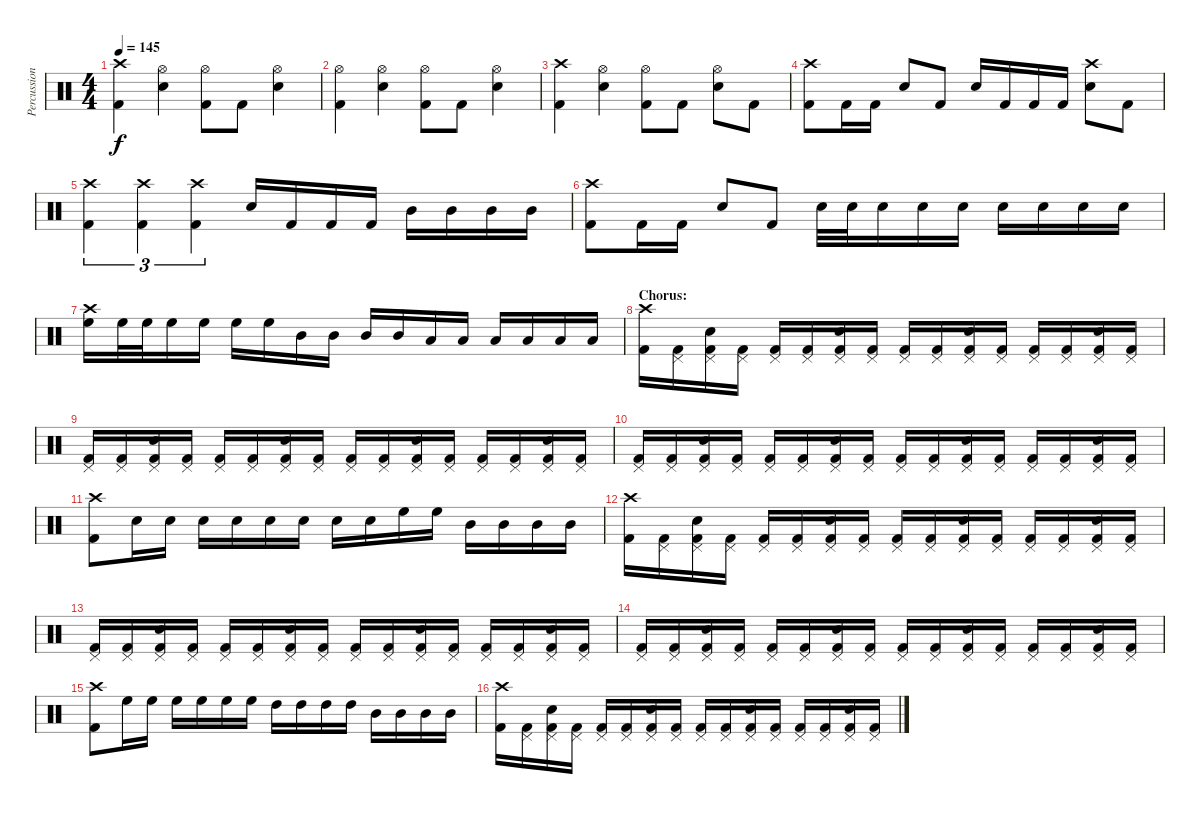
\track ("Percussion" "Percussion") {instrument percussion}
\staff {score}
\articulation defaults
\ts (4 4)
\tempo 145
\clef neutral
\ks c
("Crash high (hit)" "Kick (hit) 2").4{dy f} ("Hi-Hat (open)" "Snare (hit) 2").4 ("Hi-Hat (open)" "Kick (hit) 2").8 "Kick (hit) 2".8 ("Hi-Hat (open)" "Snare (hit) 2").4 |
("Hi-Hat (open)" "Kick (hit) 2").4 ("Hi-Hat (open)" "Snare (hit) 2").4 ("Hi-Hat (open)" "Kick (hit) 2").8 "Kick (hit) 2".8 ("Hi-Hat (open)" "Snare (hit) 2").4 |
("Crash high (hit)" "Kick (hit) 2").4 ("Hi-Hat (open)" "Snare (hit) 2").4 ("Hi-Hat (open)" "Kick (hit) 2").8 "Kick (hit) 2".8 ("Hi-Hat (open)" "Snare (hit) 2").8 "Kick (hit) 2".8 |
("Crash high (hit)" "Kick (hit) 2").8 "Kick (hit) 2".16 "Kick (hit) 2".16 "Snare (hit) 2".8 "Kick (hit) 2".8 "Snare (hit) 2".16 "Kick (hit) 2".16 "Kick (hit) 2".16 "Kick (hit) 2".16 ("Crash high (hit)" "Snare (hit) 2").8 "Kick (hit) 2".8 |
("Crash high (hit)" "Kick (hit) 2").4{tu (3 2)} ("Crash high (hit)" "Kick (hit) 2").4{tu (3 2)} ("Crash high (hit)" "Kick (hit) 2").4{tu (3 2)} "Snare (hit) 2".16 "Kick (hit) 2".16 "Kick (hit) 2".16 "Kick (hit) 2".16 "Mid Tom (hit)".16 "Mid Tom (hit)".16 "Mid Tom (hit)".16 "Mid Tom (hit)".16 |
("Crash high (hit)" "Kick (hit) 2").8 "Kick (hit) 2".16 "Kick (hit) 2".16 "Snare (hit) 2".8 "Kick (hit) 2".8 "Snare (hit) 2".32 "Snare (hit) 2".32 "Snare (hit) 2".16 "Snare (hit) 2".16 "Snare (hit) 2".16 "Snare (hit) 2".16 "Snare (hit) 2".16 "Snare (hit) 2".16 "Snare (hit) 2".16 |
("Crash high (hit)" "High Floor Tom (hit)").16 "High Floor Tom (hit)".32 "High Floor Tom (hit)".32 "High Floor Tom (hit)".16 "High Floor Tom (hit)".16 "High Floor Tom (hit)".16 "High Floor Tom (hit)".16 "Mid Tom (hit)".16 "Mid Tom (hit)".16 "Mid Tom (hit)".16 "Mid Tom (hit)".16 "Low Tom (hit)".16 "Low Tom (hit)".16 "Low Tom (hit)".16 "Low Tom (hit)".16 "Low Tom (hit)".16 "Low Tom (hit)".16 |
\section ("" "Chorus:")
("Crash high (hit)" "Kick (hit) 2").16 ("Pedal Hi-Hat (hit)" "Kick (hit) 2").16 ("Pedal Hi-Hat (hit)" "Snare (hit) 2" "Kick (hit) 2").16 ("Pedal Hi-Hat (hit)" "Kick (hit) 2").16 ("Pedal Hi-Hat (hit)" "Kick (hit) 2").16 ("Pedal Hi-Hat (hit)" "Kick (hit) 2").16 ("Pedal Hi-Hat (hit)" "Snare (hit) 2" "Kick (hit) 2").16 ("Pedal Hi-Hat (hit)" "Kick (hit) 2").16 ("Pedal Hi-Hat (hit)" "Kick (hit) 2").16 ("Pedal Hi-Hat (hit)" "Kick (hit) 2").16 ("Pedal Hi-Hat (hit)" "Snare (hit) 2" "Kick (hit) 2").16 ("Pedal Hi-Hat (hit)" "Kick (hit) 2").16 ("Pedal Hi-Hat (hit)" "Kick (hit) 2").16 ("Pedal Hi-Hat (hit)" "Kick (hit) 2").16 ("Pedal Hi-Hat (hit)" "Snare (hit) 2" "Kick (hit) 2").16 ("Pedal Hi-Hat (hit)" "Kick (hit) 2").16 |
("Pedal Hi-Hat (hit)" "Kick (hit) 2").16 ("Pedal Hi-Hat (hit)" "Kick (hit) 2").16 ("Pedal Hi-Hat (hit)" "Snare (hit) 2" "Kick (hit) 2").16 ("Pedal Hi-Hat (hit)" "Kick (hit) 2").16 ("Pedal Hi-Hat (hit)" "Kick (hit) 2").16 ("Pedal Hi-Hat (hit)" "Kick (hit) 2").16 ("Pedal Hi-Hat (hit)" "Snare (hit) 2" "Kick (hit) 2").16 ("Pedal Hi-Hat (hit)" "Kick (hit) 2").16 ("Pedal Hi-Hat (hit)" "Kick (hit) 2").16 ("Pedal Hi-Hat (hit)" "Kick (hit) 2").16 ("Pedal Hi-Hat (hit)" "Snare (hit) 2" "Kick (hit) 2").16 ("Pedal Hi-Hat (hit)" "Kick (hit) 2").16 ("Pedal Hi-Hat (hit)" "Kick (hit) 2").16 ("Pedal Hi-Hat (hit)" "Kick (hit) 2").16 ("Pedal Hi-Hat (hit)" "Snare (hit) 2" "Kick (hit) 2").16 ("Pedal Hi-Hat (hit)" "Kick (hit) 2").16 |
("Pedal Hi-Hat (hit)" "Kick (hit) 2").16 ("Pedal Hi-Hat (hit)" "Kick (hit) 2").16 ("Pedal Hi-Hat (hit)" "Snare (hit) 2" "Kick (hit) 2").16 ("Pedal Hi-Hat (hit)" "Kick (hit) 2").16 ("Pedal Hi-Hat (hit)" "Kick (hit) 2").16 ("Pedal Hi-Hat (hit)" "Kick (hit) 2").16 ("Pedal Hi-Hat (hit)" "Snare (hit) 2" "Kick (hit) 2").16 ("Pedal Hi-Hat (hit)" "Kick (hit) 2").16 ("Pedal Hi-Hat (hit)" "Kick (hit) 2").16 ("Pedal Hi-Hat (hit)" "Kick (hit) 2").16 ("Pedal Hi-Hat (hit)" "Snare (hit) 2" "Kick (hit) 2").16 ("Pedal Hi-Hat (hit)" "Kick (hit) 2").16 ("Pedal Hi-Hat (hit)" "Kick (hit) 2").16 ("Pedal Hi-Hat (hit)" "Kick (hit) 2").16 ("Pedal Hi-Hat (hit)" "Snare (hit) 2" "Kick (hit) 2").16 ("Pedal Hi-Hat (hit)" "Kick (hit) 2").16 |
("Crash high (hit)" "Kick (hit) 2").8 "Snare (hit) 2".16 "Snare (hit) 2".16 "Snare (hit) 2".16 "Snare (hit) 2".16 "Snare (hit) 2".16 "Snare (hit) 2".16 "Snare (hit) 2".16 "Snare (hit) 2".16 "High Floor Tom (hit)".16 "High Floor Tom (hit)".16 "Mid Tom (hit)".16 "Mid Tom (hit)".16 "Mid Tom (hit)".16 "Mid Tom (hit)".16 |
("Crash high (hit)" "Kick (hit) 2").16 ("Pedal Hi-Hat (hit)" "Kick (hit) 2").16 ("Pedal Hi-Hat (hit)" "Snare (hit) 2" "Kick (hit) 2").16 ("Pedal Hi-Hat (hit)" "Kick (hit) 2").16 ("Pedal Hi-Hat (hit)" "Kick (hit) 2").16 ("Pedal Hi-Hat (hit)" "Kick (hit) 2").16 ("Pedal Hi-Hat (hit)" "Snare (hit) 2" "Kick (hit) 2").16 ("Pedal Hi-Hat (hit)" "Kick (hit) 2").16 ("Pedal Hi-Hat (hit)" "Kick (hit) 2").16 ("Pedal Hi-Hat (hit)" "Kick (hit) 2").16 ("Pedal Hi-Hat (hit)" "Snare (hit) 2" "Kick (hit) 2").16 ("Pedal Hi-Hat (hit)" "Kick (hit) 2").16 ("Pedal Hi-Hat (hit)" "Kick (hit) 2").16 ("Pedal Hi-Hat (hit)" "Kick (hit) 2").16 ("Pedal Hi-Hat (hit)" "Snare (hit) 2" "Kick (hit) 2").16 ("Pedal Hi-Hat (hit)" "Kick (hit) 2").16 |
("Pedal Hi-Hat (hit)" "Kick (hit) 2").16 ("Pedal Hi-Hat (hit)" "Kick (hit) 2").16 ("Pedal Hi-Hat (hit)" "Snare (hit) 2" "Kick (hit) 2").16 ("Pedal Hi-Hat (hit)" "Kick (hit) 2").16 ("Pedal Hi-Hat (hit)" "Kick (hit) 2").16 ("Pedal Hi-Hat (hit)" "Kick (hit) 2").16 ("Pedal Hi-Hat (hit)" "Snare (hit) 2" "Kick (hit) 2").16 ("Pedal Hi-Hat (hit)" "Kick (hit) 2").16 ("Pedal Hi-Hat (hit)" "Kick (hit) 2").16 ("Pedal Hi-Hat (hit)" "Kick (hit) 2").16 ("Pedal Hi-Hat (hit)" "Snare (hit) 2" "Kick (hit) 2").16 ("Pedal Hi-Hat (hit)" "Kick (hit) 2").16 ("Pedal Hi-Hat (hit)" "Kick (hit) 2").16 ("Pedal Hi-Hat (hit)" "Kick (hit) 2").16 ("Pedal Hi-Hat (hit)" "Snare (hit) 2" "Kick (hit) 2").16 ("Pedal Hi-Hat (hit)" "Kick (hit) 2").16 |
("Pedal Hi-Hat (hit)" "Kick (hit) 2").16 ("Pedal Hi-Hat (hit)" "Kick (hit) 2").16 ("Pedal Hi-Hat (hit)" "Snare (hit) 2" "Kick (hit) 2").16 ("Pedal Hi-Hat (hit)" "Kick (hit) 2").16 ("Pedal Hi-Hat (hit)" "Kick (hit) 2").16 ("Pedal Hi-Hat (hit)" "Kick (hit) 2").16 ("Pedal Hi-Hat (hit)" "Snare (hit) 2" "Kick (hit) 2").16 ("Pedal Hi-Hat (hit)" "Kick (hit) 2").16 ("Pedal Hi-Hat (hit)" "Kick (hit) 2").16 ("Pedal Hi-Hat (hit)" "Kick (hit) 2").16 ("Pedal Hi-Hat (hit)" "Snare (hit) 2" "Kick (hit) 2").16 ("Pedal Hi-Hat (hit)" "Kick (hit) 2").16 ("Pedal Hi-Hat (hit)" "Kick (hit) 2").16 ("Pedal Hi-Hat (hit)" "Kick (hit) 2").16 ("Pedal Hi-Hat (hit)" "Snare (hit) 2" "Kick (hit) 2").16 ("Pedal Hi-Hat (hit)" "Kick (hit) 2").16 |
("Crash high (hit)" "Kick (hit) 2").8 "High Floor Tom (hit)".16 "High Floor Tom (hit)".16 "High Floor Tom (hit)".16 "High Floor Tom (hit)".16 "High Floor Tom (hit)".16 "High Floor Tom (hit)".16 "High Tom (hit)".16 "High Tom (hit)".16 "High Tom (hit)".16 "High Tom (hit)".16 "Mid Tom (hit)".16 "Mid Tom (hit)".16 "Mid Tom (hit)".16 "Mid Tom (hit)".16 |
("Crash high (hit)" "Kick (hit) 2").16 ("Pedal Hi-Hat (hit)" "Kick (hit) 2").16 ("Pedal Hi-Hat (hit)" "Snare (hit) 2" "Kick (hit) 2").16 ("Pedal Hi-Hat (hit)" "Kick (hit) 2").16 ("Pedal Hi-Hat (hit)" "Kick (hit) 2").16 ("Pedal Hi-Hat (hit)" "Kick (hit) 2").16 ("Pedal Hi-Hat (hit)" "Snare (hit) 2" "Kick (hit) 2").16 ("Pedal Hi-Hat (hit)" "Kick (hit) 2").16 ("Pedal Hi-Hat (hit)" "Kick (hit) 2").16 ("Pedal Hi-Hat (hit)" "Kick (hit) 2").16 ("Pedal Hi-Hat (hit)" "Snare (hit) 2" "Kick (hit) 2").16 ("Pedal Hi-Hat (hit)" "Kick (hit) 2").16 ("Pedal Hi-Hat (hit)" "Kick (hit) 2").16 ("Pedal Hi-Hat (hit)" "Kick (hit) 2").16 ("Pedal Hi-Hat (hit)" "Snare (hit) 2" "Kick (hit) 2").16 ("Pedal Hi-Hat (hit)" "Kick (hit) 2").16
